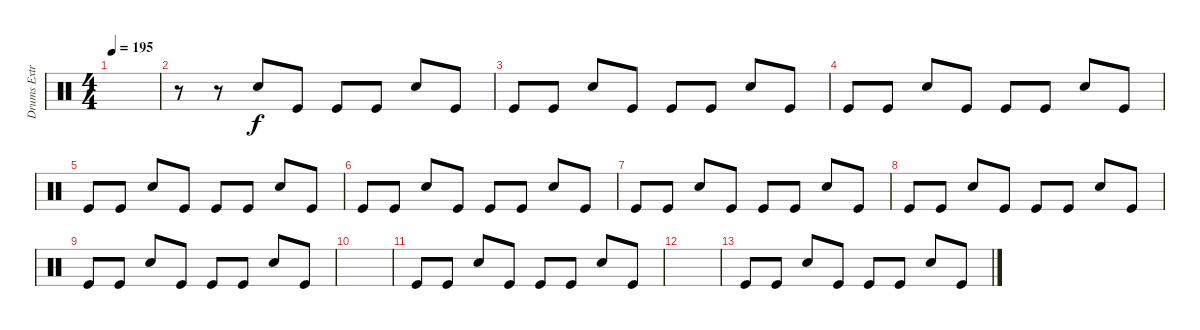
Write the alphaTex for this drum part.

\track ("Drums Extra" "Drums Extr") {instrument percussion}
\staff {score}
\articulation defaults
\ts (4 4)
\tempo 195
\clef neutral
\ks c
|
r.8 r.8 "Snare (hit) 2".8 "Kick (hit)".8 "Kick (hit)".8 "Kick (hit)".8 "Snare (hit) 2".8 "Kick (hit)".8 |
"Kick (hit)".8 "Kick (hit)".8 "Snare (hit) 2".8 "Kick (hit)".8 "Kick (hit)".8 "Kick (hit)".8 "Snare (hit) 2".8 "Kick (hit)".8 |
"Kick (hit)".8 "Kick (hit)".8 "Snare (hit) 2".8 "Kick (hit)".8 "Kick (hit)".8 "Kick (hit)".8 "Snare (hit) 2".8 "Kick (hit)".8 |
"Kick (hit)".8 "Kick (hit)".8 "Snare (hit) 2".8 "Kick (hit)".8 "Kick (hit)".8 "Kick (hit)".8 "Snare (hit) 2".8 "Kick (hit)".8 |
"Kick (hit)".8 "Kick (hit)".8 "Snare (hit) 2".8 "Kick (hit)".8 "Kick (hit)".8 "Kick (hit)".8 "Snare (hit) 2".8 "Kick (hit)".8 |
"Kick (hit)".8 "Kick (hit)".8 "Snare (hit) 2".8 "Kick (hit)".8 "Kick (hit)".8 "Kick (hit)".8 "Snare (hit) 2".8 "Kick (hit)".8 |
"Kick (hit)".8 "Kick (hit)".8 "Snare (hit) 2".8 "Kick (hit)".8 "Kick (hit)".8 "Kick (hit)".8 "Snare (hit) 2".8 "Kick (hit)".8 |
"Kick (hit)".8 "Kick (hit)".8 "Snare (hit) 2".8 "Kick (hit)".8 "Kick (hit)".8 "Kick (hit)".8 "Snare (hit) 2".8 "Kick (hit)".8 |
|
"Kick (hit)".8 "Kick (hit)".8 "Snare (hit) 2".8 "Kick (hit)".8 "Kick (hit)".8 "Kick (hit)".8 "Snare (hit) 2".8 "Kick (hit)".8 |
|
"Kick (hit)".8 "Kick (hit)".8 "Snare (hit) 2".8 "Kick (hit)".8 "Kick (hit)".8 "Kick (hit)".8 "Snare (hit) 2".8 "Kick (hit)".8
